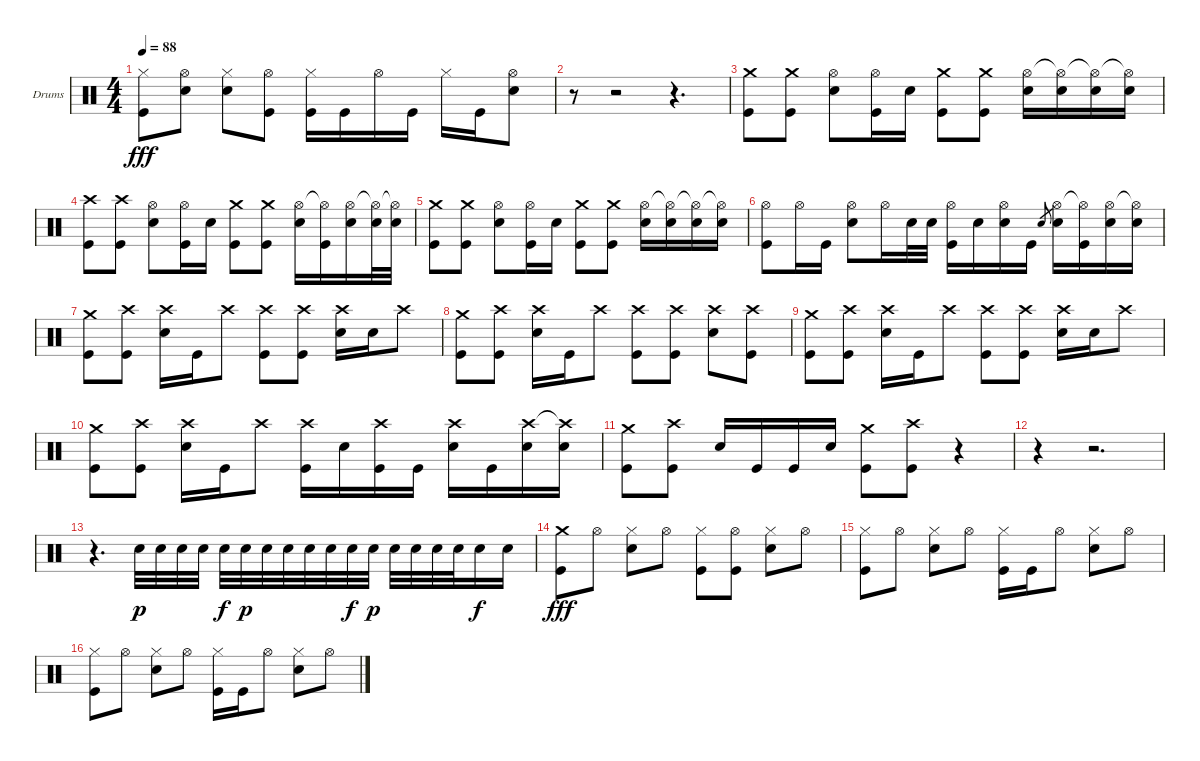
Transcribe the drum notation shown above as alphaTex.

\bracketExtendMode groupsimilarinstruments
\firstSystemTrackNameOrientation horizontal
\otherSystemsTrackNameOrientation horizontal
\track ("Drumkit" "Drums") {instrument percussion}
\staff {score}
\articulation defaults
\ts (4 4)
\tempo 88
\clef neutral
\scale
0.333333
\ks c
("Hi-Hat (closed)" "Kick (hit)").8{dy fff} ("Hi-Hat (open)" "Snare (hit) 2").8 ("Hi-Hat (closed)" "Snare (hit) 2").8 ("Hi-Hat (open)" "Kick (hit)").8 ("Hi-Hat (closed)" "Kick (hit)").16 "Kick (hit)".16 "Hi-Hat (open)".16 "Kick (hit)".16 "Hi-Hat (closed)".16 "Kick (hit)".16 ("Hi-Hat (open)" "Snare (hit) 2").8 |
\scale
0.333333 r.8 r.2 r.4{d} |
\scale
0.333333 ("Crash medium (hit)" "Kick (hit)").8 ("Crash medium (hit)" "Kick (hit)").8 ("Hi-Hat (open)" "Snare (hit) 2").8 ("Hi-Hat (open)" "Kick (hit)").16 "Snare (hit) 2".16 ("Crash medium (hit)" "Kick (hit)").8 ("Crash medium (hit)" "Kick (hit)").8 ("Hi-Hat (open)" "Snare (hit) 2").16 ("Hi-Hat (open)"{t} "Snare (hit) 2").16 ("Hi-Hat (open)"{t} "Snare (hit) 2").16 ("Hi-Hat (open)"{t} "Snare (hit) 2").16 |
\scale
0.333333 ("Crash high (hit)" "Kick (hit)").8 ("Crash high (hit)" "Kick (hit)").8 ("Hi-Hat (open)" "Snare (hit) 2").8 ("Hi-Hat (open)" "Kick (hit)").16 "Snare (hit) 2".16 ("Crash medium (hit)" "Kick (hit)").8 ("Crash medium (hit)" "Kick (hit)").8 ("Hi-Hat (open)" "Snare (hit) 2").16 ("Hi-Hat (open)"{t} "Kick (hit)").16 ("Hi-Hat (open)" "Snare (hit) 2").16 ("Hi-Hat (open)"{t} "Snare (hit) 2").32 ("Hi-Hat (open)"{t} "Snare (hit) 2").32 |
\scale
0.333333 ("Crash medium (hit)" "Kick (hit)").8 ("Crash medium (hit)" "Kick (hit)").8 ("Hi-Hat (open)" "Snare (hit) 2").8 ("Hi-Hat (open)" "Kick (hit)").16 "Snare (hit) 2".16 ("Crash medium (hit)" "Kick (hit)").8 ("Crash medium (hit)" "Kick (hit)").8 ("Hi-Hat (open)" "Snare (hit) 2").16 ("Hi-Hat (open)"{t} "Snare (hit) 2").16 ("Hi-Hat (open)"{t} "Snare (hit) 2").16 ("Hi-Hat (open)"{t} "Snare (hit) 2").16 |
\scale
0.333333 ("Hi-Hat (open)" "Kick (hit)").8 "Hi-Hat (open)".16 "Kick (hit)".16 ("Hi-Hat (open)" "Snare (hit) 2").8 "Hi-Hat (open)".16 "Snare (hit) 2".32 "Snare (hit) 2".32 ("Hi-Hat (open)" "Kick (hit)").16 "Snare (hit) 2".16 ("Hi-Hat (open)" "Snare (hit) 2").16 "Kick (hit)".16 "Snare (hit) 2".8{gr} ("Hi-Hat (open)" "Snare (hit) 2").16 ("Hi-Hat (open)"{t} "Kick (hit)").16 ("Hi-Hat (open)" "Snare (hit) 2").16 ("Hi-Hat (open)"{t} "Snare (hit) 2").16 |
\scale
0.333333 ("Crash medium (hit)" "Kick (hit)").8 ("Crash high (hit)" "Kick (hit)").8 ("Crash high (hit)" "Snare (hit) 2").16 "Kick (hit)".16 "Crash high (hit)".8 ("Crash high (hit)" "Kick (hit)").8 ("Crash high (hit)" "Kick (hit)").8 ("Crash high (hit)" "Snare (hit) 2").16 "Snare (hit) 2".16 "Crash high (hit)".8 |
\scale
0.333333 ("Crash medium (hit)" "Kick (hit)").8 ("Crash high (hit)" "Kick (hit)").8 ("Crash high (hit)" "Snare (hit) 2").16 "Kick (hit)".16 "Crash high (hit)".8 ("Crash high (hit)" "Kick (hit)").8 ("Crash high (hit)" "Kick (hit)").8 ("Crash high (hit)" "Snare (hit) 2").8 ("Crash high (hit)" "Kick (hit)").8 |
\scale
0.333333 ("Crash medium (hit)" "Kick (hit)").8 ("Crash high (hit)" "Kick (hit)").8 ("Crash high (hit)" "Snare (hit) 2").16 "Kick (hit)".16 "Crash high (hit)".8 ("Crash high (hit)" "Kick (hit)").8 ("Crash high (hit)" "Kick (hit)").8 ("Crash high (hit)" "Snare (hit) 2").16 "Snare (hit) 2".16 "Crash high (hit)".8 |
\scale
0.333333 ("Crash medium (hit)" "Kick (hit)").8 ("Crash high (hit)" "Kick (hit)").8 ("Crash high (hit)" "Snare (hit) 2").16 "Kick (hit)".16 "Crash high (hit)".8 ("Crash high (hit)" "Kick (hit)").16 "Snare (hit) 2".16 ("Crash high (hit)" "Kick (hit)").16 "Kick (hit)".16 ("Crash high (hit)" "Snare (hit) 2").16 "Kick (hit)".16 ("Crash high (hit)" "Snare (hit) 2").16 ("Crash high (hit)"{t} "Snare (hit) 2").16 |
\scale
0.333333 ("Crash medium (hit)" "Kick (hit)").8 ("Crash high (hit)" "Kick (hit)").8 "Snare (hit) 2".16 "Kick (hit)".16 "Kick (hit)".16 "Snare (hit) 2".16 ("Crash medium (hit)" "Kick (hit)").8 ("Crash high (hit)" "Kick (hit)").8 r.4 |
\scale
0.333333 r.4 r.2{d} |
\scale
0.333333 r.4{d} "Snare (hit) 2".32{dy p} "Snare (hit) 2".32 "Snare (hit) 2".32 "Snare (hit) 2".32 "Snare (hit) 2".32{dy f} "Snare (hit) 2".32{dy p} "Snare (hit) 2".32 "Snare (hit) 2".32 "Snare (hit) 2".32 "Snare (hit) 2".32 "Snare (hit) 2".32{dy f} "Snare (hit) 2".32{dy p} "Snare (hit) 2".32 "Snare (hit) 2".32 "Snare (hit) 2".32 "Snare (hit) 2".32 "Snare (hit) 2".16{dy f} "Snare (hit) 2".16 |
\scale
0.333333 ("Crash medium (hit)" "Kick (hit)").8{dy fff} "Hi-Hat (open)".8 ("Hi-Hat (closed)" "Snare (hit) 2").8 "Hi-Hat (open)".8 ("Hi-Hat (closed)" "Kick (hit)").8 ("Hi-Hat (open)" "Kick (hit)").8 ("Hi-Hat (closed)" "Snare (hit) 2").8 "Hi-Hat (open)".8 |
\scale
0.333333 ("Hi-Hat (closed)" "Kick (hit)").8 "Hi-Hat (open)".8 ("Hi-Hat (closed)" "Snare (hit) 2").8 "Hi-Hat (open)".8 ("Hi-Hat (closed)" "Kick (hit)").16 "Kick (hit)".16 "Hi-Hat (open)".8 ("Hi-Hat (closed)" "Snare (hit) 2").8 "Hi-Hat (open)".8 |
\scale
0.333333 ("Hi-Hat (closed)" "Kick (hit)").8 "Hi-Hat (open)".8 ("Hi-Hat (closed)" "Snare (hit) 2").8 "Hi-Hat (open)".8 ("Hi-Hat (closed)" "Kick (hit)").16 "Kick (hit)".16 "Hi-Hat (open)".8 ("Hi-Hat (closed)" "Snare (hit) 2").8 "Hi-Hat (open)".8
